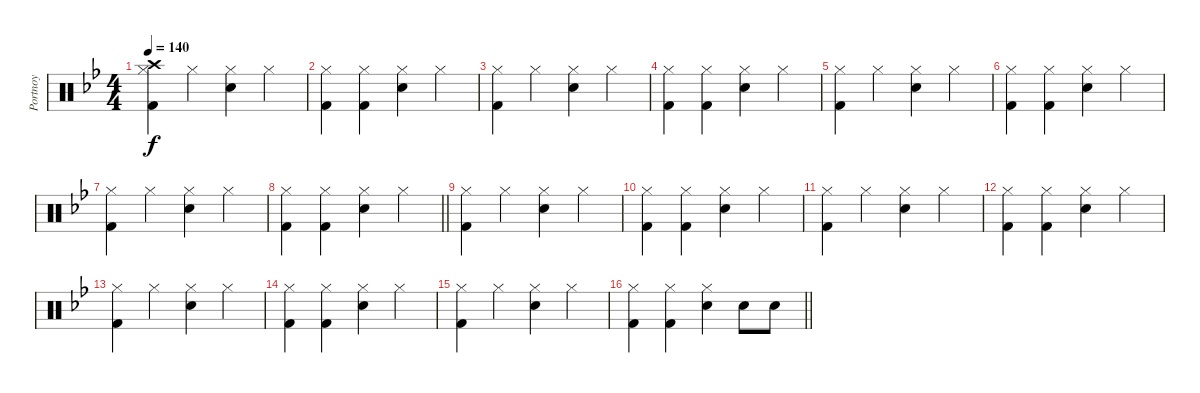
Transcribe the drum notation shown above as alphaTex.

\track ("Portnoy" "Portnoy") {instrument percussion}
\staff {score}
\articulation defaults
\ts (4 4)
\tempo 140
\clef neutral
\ks bb
("Crash high (hit)" "Hi-Hat (closed)" "Kick (hit) 2").4{dy f} "Hi-Hat (closed)".4 ("Hi-Hat (closed)" "Snare (hit) 2").4 "Hi-Hat (closed)".4 |
("Hi-Hat (closed)" "Kick (hit) 2").4 ("Hi-Hat (closed)" "Kick (hit) 2").4 ("Hi-Hat (closed)" "Snare (hit) 2").4 "Hi-Hat (closed)".4 |
("Hi-Hat (closed)" "Kick (hit) 2").4 "Hi-Hat (closed)".4 ("Hi-Hat (closed)" "Snare (hit) 2").4 "Hi-Hat (closed)".4 |
("Hi-Hat (closed)" "Kick (hit) 2").4 ("Hi-Hat (closed)" "Kick (hit) 2").4 ("Hi-Hat (closed)" "Snare (hit) 2").4 "Hi-Hat (closed)".4 |
("Hi-Hat (closed)" "Kick (hit) 2").4 "Hi-Hat (closed)".4 ("Hi-Hat (closed)" "Snare (hit) 2").4 "Hi-Hat (closed)".4 |
("Hi-Hat (closed)" "Kick (hit) 2").4 ("Hi-Hat (closed)" "Kick (hit) 2").4 ("Hi-Hat (closed)" "Snare (hit) 2").4 "Hi-Hat (closed)".4 |
("Hi-Hat (closed)" "Kick (hit) 2").4 "Hi-Hat (closed)".4 ("Hi-Hat (closed)" "Snare (hit) 2").4 "Hi-Hat (closed)".4 |
\barLineRight lightlight
("Hi-Hat (closed)" "Kick (hit) 2").4 ("Hi-Hat (closed)" "Kick (hit) 2").4 ("Hi-Hat (closed)" "Snare (hit) 2").4 "Hi-Hat (closed)".4 |
("Hi-Hat (closed)" "Kick (hit) 2").4 "Hi-Hat (closed)".4 ("Hi-Hat (closed)" "Snare (hit) 2").4 "Hi-Hat (closed)".4 |
("Hi-Hat (closed)" "Kick (hit) 2").4 ("Hi-Hat (closed)" "Kick (hit) 2").4 ("Hi-Hat (closed)" "Snare (hit) 2").4 "Hi-Hat (closed)".4 |
("Hi-Hat (closed)" "Kick (hit) 2").4 "Hi-Hat (closed)".4 ("Hi-Hat (closed)" "Snare (hit) 2").4 "Hi-Hat (closed)".4 |
("Hi-Hat (closed)" "Kick (hit) 2").4 ("Hi-Hat (closed)" "Kick (hit) 2").4 ("Hi-Hat (closed)" "Snare (hit) 2").4 "Hi-Hat (closed)".4 |
("Hi-Hat (closed)" "Kick (hit) 2").4 "Hi-Hat (closed)".4 ("Hi-Hat (closed)" "Snare (hit) 2").4 "Hi-Hat (closed)".4 |
("Hi-Hat (closed)" "Kick (hit) 2").4 ("Hi-Hat (closed)" "Kick (hit) 2").4 ("Hi-Hat (closed)" "Snare (hit) 2").4 "Hi-Hat (closed)".4 |
("Hi-Hat (closed)" "Kick (hit) 2").4 "Hi-Hat (closed)".4 ("Hi-Hat (closed)" "Snare (hit) 2").4 "Hi-Hat (closed)".4 |
\barLineRight lightlight
("Hi-Hat (closed)" "Kick (hit) 2").4 ("Hi-Hat (closed)" "Kick (hit) 2").4 ("Hi-Hat (closed)" "Snare (hit) 2").4 "Snare (hit) 2".8 "Snare (hit) 2".8
